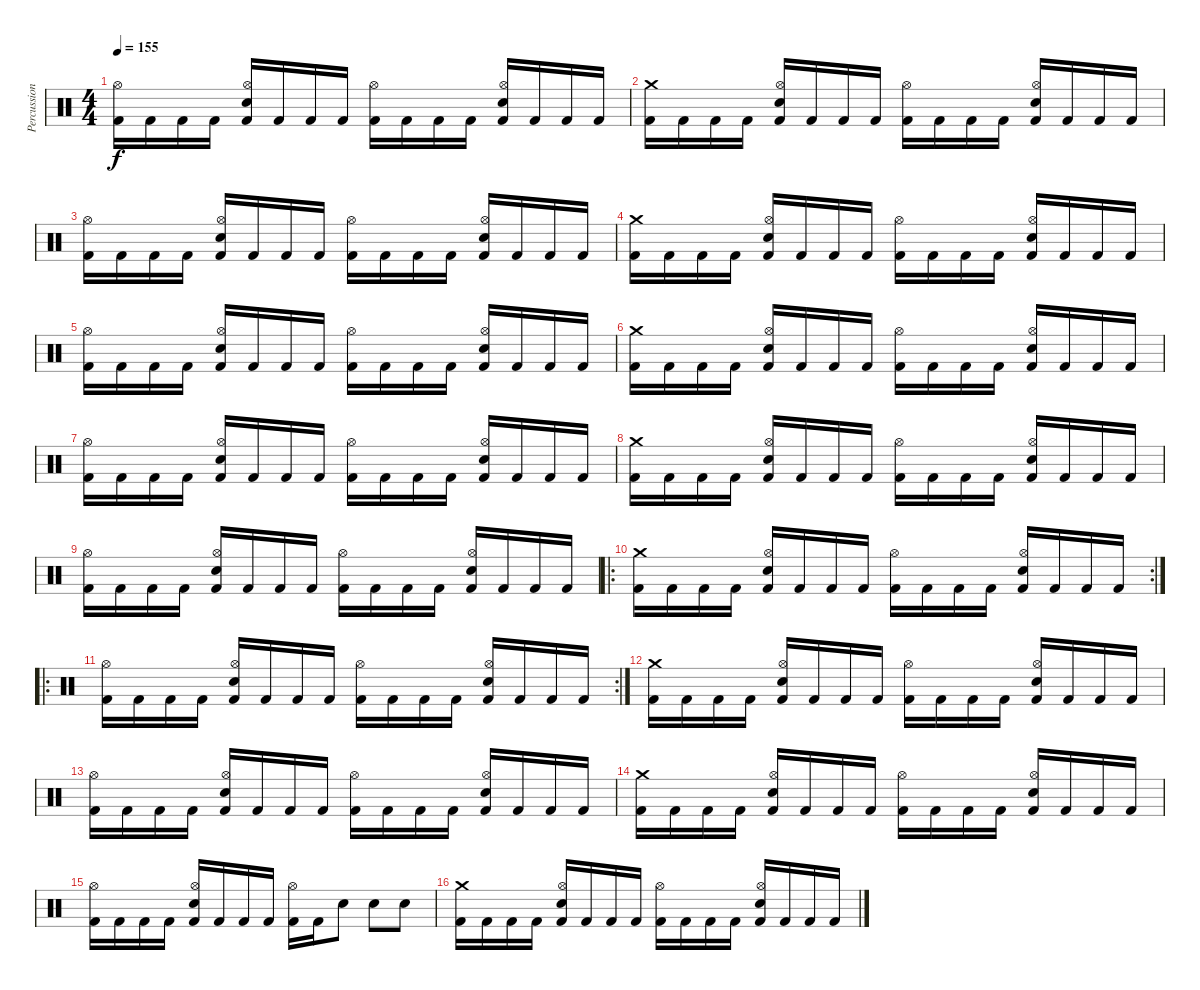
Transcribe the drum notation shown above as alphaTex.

\track ("Percussion" "Percussion") {instrument percussion}
\staff {score}
\articulation defaults
\ts (4 4)
\tempo 155
\clef neutral
\ks c
("Kick (hit) 2" "Hi-Hat (open)").16{dy f} "Kick (hit) 2".16 "Kick (hit) 2".16 "Kick (hit) 2".16 ("Kick (hit) 2" "Snare (hit) 2" "Hi-Hat (open)").16 "Kick (hit) 2".16 "Kick (hit) 2".16 "Kick (hit) 2".16 ("Kick (hit) 2" "Hi-Hat (open)").16 "Kick (hit) 2".16 "Kick (hit) 2".16 "Kick (hit) 2".16 ("Kick (hit) 2" "Snare (hit) 2" "Hi-Hat (open)").16 "Kick (hit) 2".16 "Kick (hit) 2".16 "Kick (hit) 2".16 |
("Kick (hit) 2" "Crash medium (hit)").16 "Kick (hit) 2".16 "Kick (hit) 2".16 "Kick (hit) 2".16 ("Kick (hit) 2" "Snare (hit) 2" "Hi-Hat (open)").16 "Kick (hit) 2".16 "Kick (hit) 2".16 "Kick (hit) 2".16 ("Kick (hit) 2" "Hi-Hat (open)").16 "Kick (hit) 2".16 "Kick (hit) 2".16 "Kick (hit) 2".16 ("Kick (hit) 2" "Snare (hit) 2" "Hi-Hat (open)").16 "Kick (hit) 2".16 "Kick (hit) 2".16 "Kick (hit) 2".16 |
("Kick (hit) 2" "Hi-Hat (open)").16 "Kick (hit) 2".16 "Kick (hit) 2".16 "Kick (hit) 2".16 ("Kick (hit) 2" "Snare (hit) 2" "Hi-Hat (open)").16 "Kick (hit) 2".16 "Kick (hit) 2".16 "Kick (hit) 2".16 ("Kick (hit) 2" "Hi-Hat (open)").16 "Kick (hit) 2".16 "Kick (hit) 2".16 "Kick (hit) 2".16 ("Kick (hit) 2" "Snare (hit) 2" "Hi-Hat (open)").16 "Kick (hit) 2".16 "Kick (hit) 2".16 "Kick (hit) 2".16 |
("Kick (hit) 2" "Crash medium (hit)").16 "Kick (hit) 2".16 "Kick (hit) 2".16 "Kick (hit) 2".16 ("Kick (hit) 2" "Snare (hit) 2" "Hi-Hat (open)").16 "Kick (hit) 2".16 "Kick (hit) 2".16 "Kick (hit) 2".16 ("Kick (hit) 2" "Hi-Hat (open)").16 "Kick (hit) 2".16 "Kick (hit) 2".16 "Kick (hit) 2".16 ("Kick (hit) 2" "Snare (hit) 2" "Hi-Hat (open)").16 "Kick (hit) 2".16 "Kick (hit) 2".16 "Kick (hit) 2".16 |
("Kick (hit) 2" "Hi-Hat (open)").16 "Kick (hit) 2".16 "Kick (hit) 2".16 "Kick (hit) 2".16 ("Kick (hit) 2" "Snare (hit) 2" "Hi-Hat (open)").16 "Kick (hit) 2".16 "Kick (hit) 2".16 "Kick (hit) 2".16 ("Kick (hit) 2" "Hi-Hat (open)").16 "Kick (hit) 2".16 "Kick (hit) 2".16 "Kick (hit) 2".16 ("Kick (hit) 2" "Snare (hit) 2" "Hi-Hat (open)").16 "Kick (hit) 2".16 "Kick (hit) 2".16 "Kick (hit) 2".16 |
("Kick (hit) 2" "Crash medium (hit)").16 "Kick (hit) 2".16 "Kick (hit) 2".16 "Kick (hit) 2".16 ("Kick (hit) 2" "Snare (hit) 2" "Hi-Hat (open)").16 "Kick (hit) 2".16 "Kick (hit) 2".16 "Kick (hit) 2".16 ("Kick (hit) 2" "Hi-Hat (open)").16 "Kick (hit) 2".16 "Kick (hit) 2".16 "Kick (hit) 2".16 ("Kick (hit) 2" "Snare (hit) 2" "Hi-Hat (open)").16 "Kick (hit) 2".16 "Kick (hit) 2".16 "Kick (hit) 2".16 |
("Kick (hit) 2" "Hi-Hat (open)").16 "Kick (hit) 2".16 "Kick (hit) 2".16 "Kick (hit) 2".16 ("Kick (hit) 2" "Snare (hit) 2" "Hi-Hat (open)").16 "Kick (hit) 2".16 "Kick (hit) 2".16 "Kick (hit) 2".16 ("Kick (hit) 2" "Hi-Hat (open)").16 "Kick (hit) 2".16 "Kick (hit) 2".16 "Kick (hit) 2".16 ("Kick (hit) 2" "Snare (hit) 2" "Hi-Hat (open)").16 "Kick (hit) 2".16 "Kick (hit) 2".16 "Kick (hit) 2".16 |
("Kick (hit) 2" "Crash medium (hit)").16 "Kick (hit) 2".16 "Kick (hit) 2".16 "Kick (hit) 2".16 ("Kick (hit) 2" "Snare (hit) 2" "Hi-Hat (open)").16 "Kick (hit) 2".16 "Kick (hit) 2".16 "Kick (hit) 2".16 ("Kick (hit) 2" "Hi-Hat (open)").16 "Kick (hit) 2".16 "Kick (hit) 2".16 "Kick (hit) 2".16 ("Kick (hit) 2" "Snare (hit) 2" "Hi-Hat (open)").16 "Kick (hit) 2".16 "Kick (hit) 2".16 "Kick (hit) 2".16 |
("Kick (hit) 2" "Hi-Hat (open)").16 "Kick (hit) 2".16 "Kick (hit) 2".16 "Kick (hit) 2".16 ("Kick (hit) 2" "Snare (hit) 2" "Hi-Hat (open)").16 "Kick (hit) 2".16 "Kick (hit) 2".16 "Kick (hit) 2".16 ("Kick (hit) 2" "Hi-Hat (open)").16 "Kick (hit) 2".16 "Kick (hit) 2".16 "Kick (hit) 2".16 ("Kick (hit) 2" "Snare (hit) 2" "Hi-Hat (open)").16 "Kick (hit) 2".16 "Kick (hit) 2".16 "Kick (hit) 2".16 |
\ro
\rc 2
("Kick (hit) 2" "Crash medium (hit)").16 "Kick (hit) 2".16 "Kick (hit) 2".16 "Kick (hit) 2".16 ("Kick (hit) 2" "Snare (hit) 2" "Hi-Hat (open)").16 "Kick (hit) 2".16 "Kick (hit) 2".16 "Kick (hit) 2".16 ("Kick (hit) 2" "Hi-Hat (open)").16 "Kick (hit) 2".16 "Kick (hit) 2".16 "Kick (hit) 2".16 ("Kick (hit) 2" "Snare (hit) 2" "Hi-Hat (open)").16 "Kick (hit) 2".16 "Kick (hit) 2".16 "Kick (hit) 2".16 |
\ro
\rc 2
("Kick (hit) 2" "Hi-Hat (open)").16 "Kick (hit) 2".16 "Kick (hit) 2".16 "Kick (hit) 2".16 ("Kick (hit) 2" "Snare (hit) 2" "Hi-Hat (open)").16 "Kick (hit) 2".16 "Kick (hit) 2".16 "Kick (hit) 2".16 ("Kick (hit) 2" "Hi-Hat (open)").16 "Kick (hit) 2".16 "Kick (hit) 2".16 "Kick (hit) 2".16 ("Kick (hit) 2" "Snare (hit) 2" "Hi-Hat (open)").16 "Kick (hit) 2".16 "Kick (hit) 2".16 "Kick (hit) 2".16 |
("Kick (hit) 2" "Crash medium (hit)").16 "Kick (hit) 2".16 "Kick (hit) 2".16 "Kick (hit) 2".16 ("Kick (hit) 2" "Snare (hit) 2" "Hi-Hat (open)").16 "Kick (hit) 2".16 "Kick (hit) 2".16 "Kick (hit) 2".16 ("Kick (hit) 2" "Hi-Hat (open)").16 "Kick (hit) 2".16 "Kick (hit) 2".16 "Kick (hit) 2".16 ("Kick (hit) 2" "Snare (hit) 2" "Hi-Hat (open)").16 "Kick (hit) 2".16 "Kick (hit) 2".16 "Kick (hit) 2".16 |
("Kick (hit) 2" "Hi-Hat (open)").16 "Kick (hit) 2".16 "Kick (hit) 2".16 "Kick (hit) 2".16 ("Kick (hit) 2" "Snare (hit) 2" "Hi-Hat (open)").16 "Kick (hit) 2".16 "Kick (hit) 2".16 "Kick (hit) 2".16 ("Kick (hit) 2" "Hi-Hat (open)").16 "Kick (hit) 2".16 "Kick (hit) 2".16 "Kick (hit) 2".16 ("Kick (hit) 2" "Snare (hit) 2" "Hi-Hat (open)").16 "Kick (hit) 2".16 "Kick (hit) 2".16 "Kick (hit) 2".16 |
("Kick (hit) 2" "Crash medium (hit)").16 "Kick (hit) 2".16 "Kick (hit) 2".16 "Kick (hit) 2".16 ("Kick (hit) 2" "Snare (hit) 2" "Hi-Hat (open)").16 "Kick (hit) 2".16 "Kick (hit) 2".16 "Kick (hit) 2".16 ("Kick (hit) 2" "Hi-Hat (open)").16 "Kick (hit) 2".16 "Kick (hit) 2".16 "Kick (hit) 2".16 ("Kick (hit) 2" "Snare (hit) 2" "Hi-Hat (open)").16 "Kick (hit) 2".16 "Kick (hit) 2".16 "Kick (hit) 2".16 |
("Kick (hit) 2" "Hi-Hat (open)").16 "Kick (hit) 2".16 "Kick (hit) 2".16 "Kick (hit) 2".16 ("Kick (hit) 2" "Snare (hit) 2" "Hi-Hat (open)").16 "Kick (hit) 2".16 "Kick (hit) 2".16 "Kick (hit) 2".16 ("Kick (hit) 2" "Hi-Hat (open)").16 "Kick (hit) 2".16 "Snare (hit) 2".8 "Snare (hit) 2".8 "Snare (hit) 2".8 |
("Kick (hit) 2" "Crash medium (hit)").16 "Kick (hit) 2".16 "Kick (hit) 2".16 "Kick (hit) 2".16 ("Kick (hit) 2" "Snare (hit) 2" "Hi-Hat (open)").16 "Kick (hit) 2".16 "Kick (hit) 2".16 "Kick (hit) 2".16 ("Kick (hit) 2" "Hi-Hat (open)").16 "Kick (hit) 2".16 "Kick (hit) 2".16 "Kick (hit) 2".16 ("Kick (hit) 2" "Snare (hit) 2" "Hi-Hat (open)").16 "Kick (hit) 2".16 "Kick (hit) 2".16 "Kick (hit) 2".16
